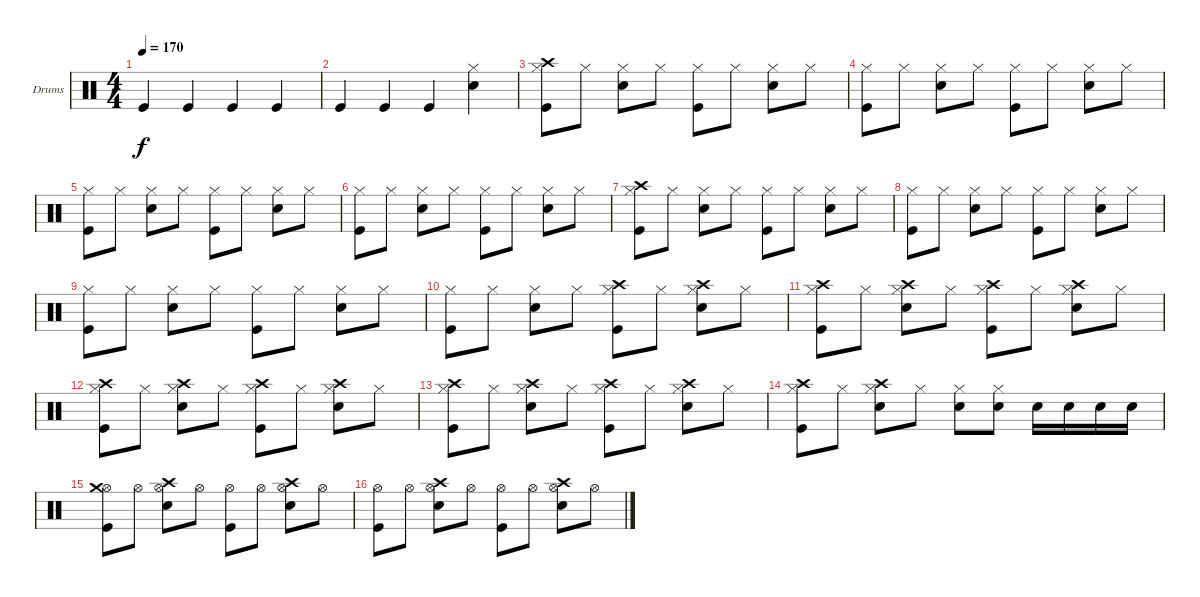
\defaultSystemsLayout 4
\bracketExtendMode groupsimilarinstruments
\firstSystemTrackNameOrientation horizontal
\otherSystemsTrackNameOrientation horizontal
\track ("Барабаны" "Drums") {instrument percussion}
\staff {score}
\articulation defaults
\ts (4 4)
\tempo 170
\clef neutral
\ks c "Kick (hit)".4{dy f} "Kick (hit)".4 "Kick (hit)".4 "Kick (hit)".4
|
"Kick (hit)".4 "Kick (hit)".4 "Kick (hit)".4 ("Snare (hit) 2" "Hi-Hat (closed)").4 |
("Kick (hit)" "Hi-Hat (closed)" "Crash high (hit)").8 "Hi-Hat (closed)".8 ("Snare (hit) 2" "Hi-Hat (closed)").8 "Hi-Hat (closed)".8 ("Kick (hit)" "Hi-Hat (closed)").8 "Hi-Hat (closed)".8 ("Snare (hit) 2" "Hi-Hat (closed)").8 "Hi-Hat (closed)".8 |
("Kick (hit)" "Hi-Hat (closed)").8 "Hi-Hat (closed)".8 ("Snare (hit) 2" "Hi-Hat (closed)").8 "Hi-Hat (closed)".8 ("Kick (hit)" "Hi-Hat (closed)").8 "Hi-Hat (closed)".8 ("Snare (hit) 2" "Hi-Hat (closed)").8 "Hi-Hat (closed)".8 |
("Kick (hit)" "Hi-Hat (closed)").8 "Hi-Hat (closed)".8 ("Snare (hit) 2" "Hi-Hat (closed)").8 "Hi-Hat (closed)".8 ("Kick (hit)" "Hi-Hat (closed)").8 "Hi-Hat (closed)".8 ("Snare (hit) 2" "Hi-Hat (closed)").8 "Hi-Hat (closed)".8 |
("Kick (hit)" "Hi-Hat (closed)").8 "Hi-Hat (closed)".8 ("Snare (hit) 2" "Hi-Hat (closed)").8 "Hi-Hat (closed)".8 ("Kick (hit)" "Hi-Hat (closed)").8 "Hi-Hat (closed)".8 ("Snare (hit) 2" "Hi-Hat (closed)").8 "Hi-Hat (closed)".8 |
("Kick (hit)" "Hi-Hat (closed)" "Crash high (hit)").8 "Hi-Hat (closed)".8 ("Snare (hit) 2" "Hi-Hat (closed)").8 "Hi-Hat (closed)".8 ("Kick (hit)" "Hi-Hat (closed)").8 "Hi-Hat (closed)".8 ("Snare (hit) 2" "Hi-Hat (closed)").8 "Hi-Hat (closed)".8 |
("Kick (hit)" "Hi-Hat (closed)").8 "Hi-Hat (closed)".8 ("Snare (hit) 2" "Hi-Hat (closed)").8 "Hi-Hat (closed)".8 ("Kick (hit)" "Hi-Hat (closed)").8 "Hi-Hat (closed)".8 ("Snare (hit) 2" "Hi-Hat (closed)").8 "Hi-Hat (closed)".8 |
("Kick (hit)" "Hi-Hat (closed)").8 "Hi-Hat (closed)".8 ("Snare (hit) 2" "Hi-Hat (closed)").8 "Hi-Hat (closed)".8 ("Kick (hit)" "Hi-Hat (closed)").8 "Hi-Hat (closed)".8 ("Snare (hit) 2" "Hi-Hat (closed)").8 "Hi-Hat (closed)".8 |
("Kick (hit)" "Hi-Hat (closed)").8 "Hi-Hat (closed)".8 ("Snare (hit) 2" "Hi-Hat (closed)").8 "Hi-Hat (closed)".8 ("Kick (hit)" "Hi-Hat (closed)" "Crash high (hit)").8 "Hi-Hat (closed)".8 ("Snare (hit) 2" "Hi-Hat (closed)" "Crash high (hit)").8 "Hi-Hat (closed)".8 |
("Kick (hit)" "Hi-Hat (closed)" "Crash high (hit)").8 "Hi-Hat (closed)".8 ("Snare (hit) 2" "Hi-Hat (closed)" "Crash high (hit)").8 "Hi-Hat (closed)".8 ("Kick (hit)" "Hi-Hat (closed)" "Crash high (hit)").8 "Hi-Hat (closed)".8 ("Snare (hit) 2" "Hi-Hat (closed)" "Crash high (hit)").8 "Hi-Hat (closed)".8 |
("Kick (hit)" "Hi-Hat (closed)" "Crash high (hit)").8 "Hi-Hat (closed)".8 ("Snare (hit) 2" "Hi-Hat (closed)" "Crash high (hit)").8 "Hi-Hat (closed)".8 ("Kick (hit)" "Hi-Hat (closed)" "Crash high (hit)").8 "Hi-Hat (closed)".8 ("Snare (hit) 2" "Hi-Hat (closed)" "Crash high (hit)").8 "Hi-Hat (closed)".8 |
("Kick (hit)" "Hi-Hat (closed)" "Crash high (hit)").8 "Hi-Hat (closed)".8 ("Snare (hit) 2" "Hi-Hat (closed)" "Crash high (hit)").8 "Hi-Hat (closed)".8 ("Kick (hit)" "Hi-Hat (closed)" "Crash high (hit)").8 "Hi-Hat (closed)".8 ("Snare (hit) 2" "Hi-Hat (closed)" "Crash high (hit)").8 "Hi-Hat (closed)".8 |
("Kick (hit)" "Hi-Hat (closed)" "Crash high (hit)").8 "Hi-Hat (closed)".8 ("Snare (hit) 2" "Hi-Hat (closed)" "Crash high (hit)").8 "Hi-Hat (closed)".8 ("Snare (hit) 2" "Hi-Hat (closed)").8 ("Snare (hit) 2" "Hi-Hat (closed)").8 "Snare (hit) 2".16 "Snare (hit) 2".16 "Snare (hit) 2".16 "Snare (hit) 2".16 |
("Kick (hit)" "Hi-Hat (open)" "Crash medium (hit)").8 "Hi-Hat (open)".8 ("Snare (hit) 2" "Hi-Hat (open)" "Crash high (hit)").8 "Hi-Hat (open)".8 ("Kick (hit)" "Hi-Hat (open)").8 "Hi-Hat (open)".8 ("Snare (hit) 2" "Hi-Hat (open)" "Crash high (hit)").8 "Hi-Hat (open)".8 |
("Kick (hit)" "Hi-Hat (open)").8 "Hi-Hat (open)".8 ("Snare (hit) 2" "Hi-Hat (open)" "Crash high (hit)").8 "Hi-Hat (open)".8 ("Kick (hit)" "Hi-Hat (open)").8 "Hi-Hat (open)".8 ("Snare (hit) 2" "Hi-Hat (open)" "Crash high (hit)").8 "Hi-Hat (open)".8
